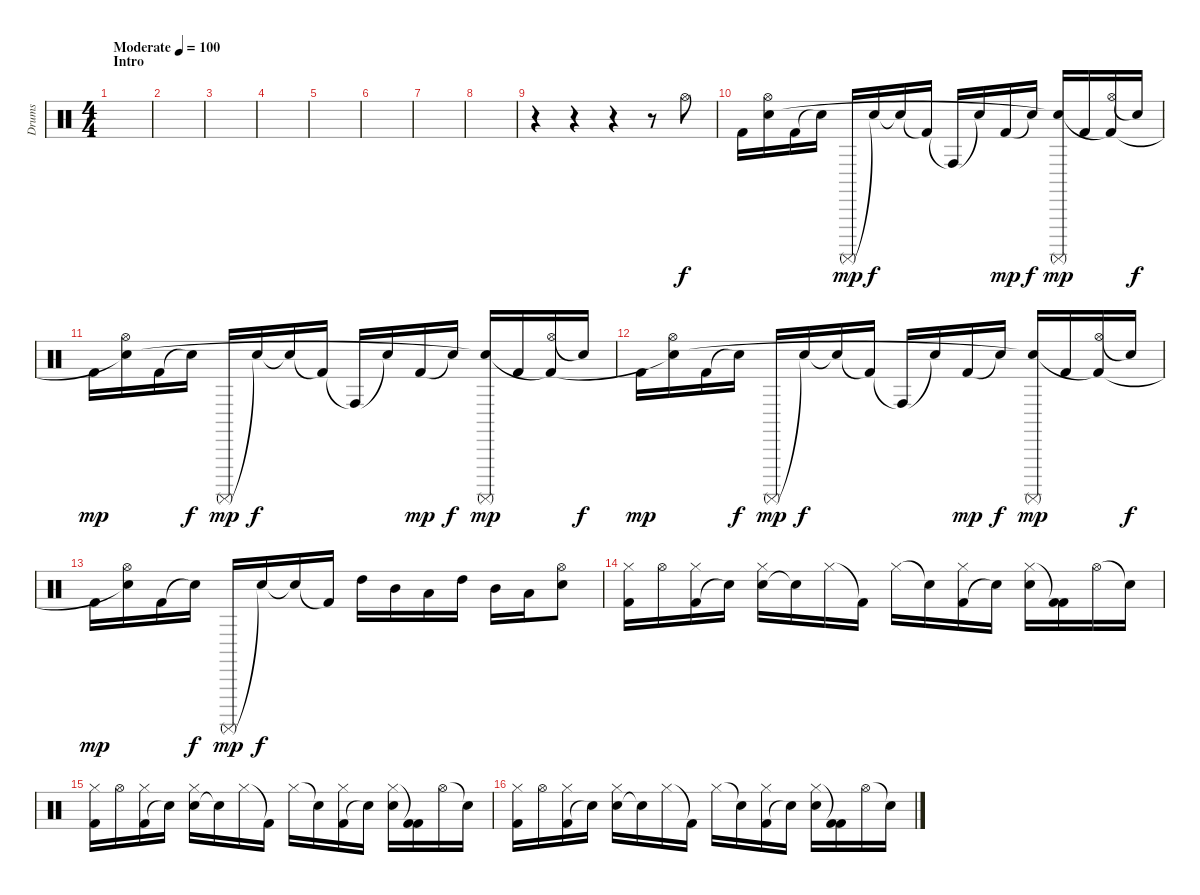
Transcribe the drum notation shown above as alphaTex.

\track ("Drums" "Drums") {instrument percussion}
\staff {score}
\articulation defaults
\ts (4 4)
\section ("" "Intro")
\tempo (100 "Moderate")
\clef neutral
\ks c
|
|
|
|
|
|
|
|
r.4 r.4 r.4 r.8 "Hi-Hat (open)".8 |
"Kick (hit) 2".16 ("Hi-Hat (open)" "Snare (hit)").16 "Kick (hit) 2".16 "Snare (hit)"{t}.16{dy f} "Surdo (mute)".16{dy mp} "Snare (hit)"{t}.16{dy f} "Snare (hit)"{t}.16 "Kick (hit) 2"{t}.16 "Conga high (hit)"{t}.16 "Snare (hit)"{t}.16 "Kick (hit) 2".16{dy mp} "Snare (hit)"{t}.16{dy f} ("Surdo (mute)" "Snare (hit) 2"{t}).16{dy mp} "Kick (hit) 2".16 ("Hi-Hat (open)" "Kick (hit) 2"{t}).16 "Snare (hit)"{t}.16{dy f} |
"Kick (hit) 2".16{dy mp} ("Hi-Hat (open)" "Snare (hit)"{t}).16 "Kick (hit) 2".16 "Snare (hit)"{t}.16{dy f} "Surdo (mute)".16{dy mp} "Snare (hit)"{t}.16{dy f} "Snare (hit)"{t}.16 "Kick (hit) 2"{t}.16 "Conga high (hit)"{t}.16 "Snare (hit)"{t}.16 "Kick (hit) 2".16{dy mp} "Snare (hit)"{t}.16{dy f} ("Surdo (mute)" "Snare (hit) 2"{t}).16{dy mp} "Kick (hit) 2".16 ("Hi-Hat (open)" "Kick (hit) 2"{t}).16 "Snare (hit)"{t}.16{dy f} |
"Kick (hit) 2".16{dy mp} ("Hi-Hat (open)" "Snare (hit)"{t}).16 "Kick (hit) 2".16 "Snare (hit)"{t}.16{dy f} "Surdo (mute)".16{dy mp} "Snare (hit)"{t}.16{dy f} "Snare (hit)"{t}.16 "Kick (hit) 2"{t}.16 "Conga high (hit)"{t}.16 "Snare (hit)"{t}.16 "Kick (hit) 2".16{dy mp} "Snare (hit)"{t}.16{dy f} ("Surdo (mute)" "Snare (hit) 2"{t}).16{dy mp} "Kick (hit) 2".16 ("Hi-Hat (open)" "Kick (hit) 2"{t}).16 "Snare (hit)"{t}.16{dy f} |
"Kick (hit) 2".16{dy mp} ("Hi-Hat (open)" "Snare (hit)"{t}).16 "Kick (hit) 2".16 "Snare (hit)"{t}.16{dy f} "Surdo (mute)".16{dy mp} "Snare (hit)"{t}.16{dy f} "Snare (hit)"{t}.16 "Kick (hit) 2"{t}.16 "High Tom (hit)".16 "Mid Tom (hit)".16 "Low Tom (hit)".16 "High Tom (hit)".16 "Mid Tom (hit)".16 "Low Tom (hit)".16 ("Hi-Hat (open)" "Snare (hit) 2").8 |
("Kick (hit) 2" "Hi-Hat (closed)").16 "Hi-Hat (open)".16 ("Kick (hit) 2" "Hi-Hat (closed)").16 "Snare (hit)"{t}.16 ("Snare (hit) 2" "Hi-Hat (closed)").16 "Snare (hit)"{t}.16 "Hi-Hat (closed)".16 "Kick (hit) 2"{t}.16 "Hi-Hat (closed)".16 "Snare (hit)"{t}.16 ("Kick (hit) 2" "Hi-Hat (closed)").16 "Snare (hit)"{t}.16 ("Snare (hit) 2" "Hi-Hat (closed)").16 ("Kick (hit) 2" "Kick (hit) 2"{t}).16 "Hi-Hat (open)".16 "Snare (hit)"{t}.16 |
("Kick (hit) 2" "Hi-Hat (closed)").16 "Hi-Hat (open)".16 ("Kick (hit) 2" "Hi-Hat (closed)").16 "Snare (hit)"{t}.16 ("Snare (hit) 2" "Hi-Hat (closed)").16 "Snare (hit)"{t}.16 "Hi-Hat (closed)".16 "Kick (hit) 2"{t}.16 "Hi-Hat (closed)".16 "Snare (hit)"{t}.16 ("Kick (hit) 2" "Hi-Hat (closed)").16 "Snare (hit)"{t}.16 ("Snare (hit) 2" "Hi-Hat (closed)").16 ("Kick (hit) 2" "Kick (hit) 2"{t}).16 "Hi-Hat (open)".16 "Snare (hit)"{t}.16 |
("Kick (hit) 2" "Hi-Hat (closed)").16 "Hi-Hat (open)".16 ("Kick (hit) 2" "Hi-Hat (closed)").16 "Snare (hit)"{t}.16 ("Snare (hit) 2" "Hi-Hat (closed)").16 "Snare (hit)"{t}.16 "Hi-Hat (closed)".16 "Kick (hit) 2"{t}.16 "Hi-Hat (closed)".16 "Snare (hit)"{t}.16 ("Kick (hit) 2" "Hi-Hat (closed)").16 "Snare (hit)"{t}.16 ("Snare (hit) 2" "Hi-Hat (closed)").16 ("Kick (hit) 2" "Kick (hit) 2"{t}).16 "Hi-Hat (open)".16 "Snare (hit)"{t}.16
